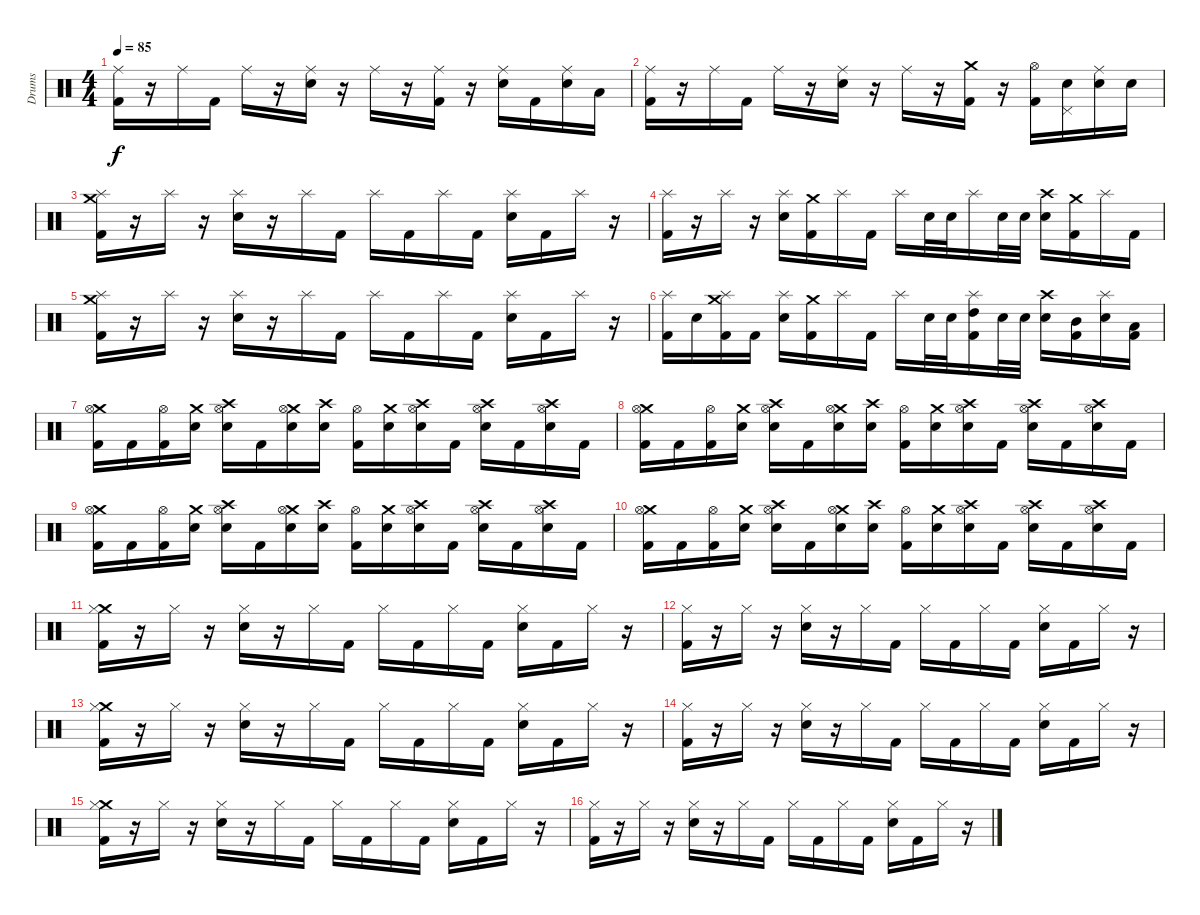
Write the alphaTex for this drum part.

\track ("Drums" "Drums") {instrument percussion}
\staff {score}
\articulation defaults
\ts (4 4)
\tempo 85
\clef neutral
\ks c
("Ride (middle)" "Kick (hit) 2").16{dy f} r.16 "Ride (middle)".16 "Kick (hit) 2".16 "Ride (middle)".16 r.16 ("Ride (middle)" "Electric Snare (hit)").16 r.16 "Ride (middle)".16 r.16 ("Ride (middle)" "Kick (hit) 2").16 r.16 ("Ride (middle)" "Electric Snare (hit)").16 "Kick (hit) 2".16 ("Ride (middle)" "Electric Snare (hit)").16 "Low Tom (hit)".16 |
("Ride (middle)" "Kick (hit) 2").16 r.16 "Ride (middle)".16 "Kick (hit) 2".16 "Ride (middle)".16 r.16 ("Ride (middle)" "Electric Snare (hit)").16 r.16 "Ride (middle)".16 r.16 ("Crash medium (hit)" "Kick (hit) 2").16 r.16 ("Hi-Hat (open)" "Kick (hit) 2").16 ("Pedal Hi-Hat (hit)" "Electric Snare (hit)").16 ("Ride (middle)" "Electric Snare (hit)").16 "Electric Snare (hit)".16 |
("Crash medium (hit)" "Splash (hit)" "Kick (hit) 2").16 r.16 "Splash (hit)".16 r.16 ("Splash (hit)" "Electric Snare (hit)").16 r.16 "Splash (hit)".16 "Kick (hit) 2".16 "Splash (hit)".16 "Kick (hit) 2".16 "Splash (hit)".16 "Kick (hit) 2".16 ("Splash (hit)" "Electric Snare (hit)").16 "Kick (hit) 2".16 "Splash (hit)".16 r.16 |
("Splash (hit)" "Kick (hit) 2").16 r.16 "Splash (hit)".16 r.16 ("Splash (hit)" "Electric Snare (hit)").16 ("Crash medium (hit)" "Kick (hit) 2").16 "Splash (hit)".16 "Kick (hit) 2".16 "Splash (hit)".16 "Electric Snare (hit)".32 "Electric Snare (hit)".32 "Splash (hit)".16 "Electric Snare (hit)".32 "Electric Snare (hit)".32 ("Crash high (hit)" "Electric Snare (hit)").16 ("Crash medium (hit)" "Kick (hit) 2").16 "Splash (hit)".16 "Kick (hit) 2".16 |
("Crash medium (hit)" "Splash (hit)" "Kick (hit) 2").16 r.16 "Splash (hit)".16 r.16 ("Splash (hit)" "Electric Snare (hit)").16 r.16 "Splash (hit)".16 "Kick (hit) 2".16 "Splash (hit)".16 "Kick (hit) 2".16 "Splash (hit)".16 "Kick (hit) 2".16 ("Splash (hit)" "Electric Snare (hit)").16 "Kick (hit) 2".16 "Splash (hit)".16 r.16 |
("Splash (hit)" "Kick (hit) 2").16 "Electric Snare (hit)".16 ("Crash medium (hit)" "Splash (hit)" "Kick (hit) 2").16 "Kick (hit) 2".16 ("Splash (hit)" "Electric Snare (hit)").16 ("Crash medium (hit)" "Kick (hit) 2").16 "Splash (hit)".16 "Kick (hit) 2".16 "Splash (hit)".16 "Electric Snare (hit)".32 "Electric Snare (hit)".32 ("Splash (hit)" "High Tom (hit)" "Kick (hit) 2").16 "Electric Snare (hit)".32 "Electric Snare (hit)".32 ("Crash high (hit)" "Electric Snare (hit)").16 ("Mid Tom (hit)" "Kick (hit) 2").16 ("Splash (hit)" "Electric Snare (hit)").16 ("Low Tom (hit)" "Kick (hit) 2").16 |
("Crash medium (hit)" "Hi-Hat (open)" "Kick (hit) 2").16 "Kick (hit) 2".16 ("Hi-Hat (open)" "Kick (hit) 2").16 ("Crash medium (hit)" "Electric Snare (hit)").16 ("Crash high (hit)" "Hi-Hat (open)" "Electric Snare (hit)").16 "Kick (hit) 2".16 ("Crash medium (hit)" "Hi-Hat (open)" "Electric Snare (hit)").16 ("Crash high (hit)" "Electric Snare (hit)").16 ("Hi-Hat (open)" "Kick (hit) 2").16 ("Crash medium (hit)" "Electric Snare (hit)").16 ("Crash high (hit)" "Hi-Hat (open)" "Electric Snare (hit)").16 "Kick (hit) 2".16 ("Crash high (hit)" "Hi-Hat (open)" "Electric Snare (hit)").16 "Kick (hit) 2".16 ("Crash high (hit)" "Hi-Hat (open)" "Electric Snare (hit)").16 "Kick (hit) 2".16 |
("Crash medium (hit)" "Hi-Hat (open)" "Kick (hit) 2").16 "Kick (hit) 2".16 ("Hi-Hat (open)" "Kick (hit) 2").16 ("Crash medium (hit)" "Electric Snare (hit)").16 ("Crash high (hit)" "Hi-Hat (open)" "Electric Snare (hit)").16 "Kick (hit) 2".16 ("Crash medium (hit)" "Hi-Hat (open)" "Electric Snare (hit)").16 ("Crash high (hit)" "Electric Snare (hit)").16 ("Hi-Hat (open)" "Kick (hit) 2").16 ("Crash medium (hit)" "Electric Snare (hit)").16 ("Crash high (hit)" "Hi-Hat (open)" "Electric Snare (hit)").16 "Kick (hit) 2".16 ("Crash high (hit)" "Hi-Hat (open)" "Electric Snare (hit)").16 "Kick (hit) 2".16 ("Crash high (hit)" "Hi-Hat (open)" "Electric Snare (hit)").16 "Kick (hit) 2".16 |
("Crash medium (hit)" "Hi-Hat (open)" "Kick (hit) 2").16 "Kick (hit) 2".16 ("Hi-Hat (open)" "Kick (hit) 2").16 ("Crash medium (hit)" "Electric Snare (hit)").16 ("Crash high (hit)" "Hi-Hat (open)" "Electric Snare (hit)").16 "Kick (hit) 2".16 ("Crash medium (hit)" "Hi-Hat (open)" "Electric Snare (hit)").16 ("Crash high (hit)" "Electric Snare (hit)").16 ("Hi-Hat (open)" "Kick (hit) 2").16 ("Crash medium (hit)" "Electric Snare (hit)").16 ("Crash high (hit)" "Hi-Hat (open)" "Electric Snare (hit)").16 "Kick (hit) 2".16 ("Crash high (hit)" "Hi-Hat (open)" "Electric Snare (hit)").16 "Kick (hit) 2".16 ("Crash high (hit)" "Hi-Hat (open)" "Electric Snare (hit)").16 "Kick (hit) 2".16 |
("Crash medium (hit)" "Hi-Hat (open)" "Kick (hit) 2").16 "Kick (hit) 2".16 ("Hi-Hat (open)" "Kick (hit) 2").16 ("Crash medium (hit)" "Electric Snare (hit)").16 ("Crash high (hit)" "Hi-Hat (open)" "Electric Snare (hit)").16 "Kick (hit) 2".16 ("Crash medium (hit)" "Hi-Hat (open)" "Electric Snare (hit)").16 ("Crash high (hit)" "Electric Snare (hit)").16 ("Hi-Hat (open)" "Kick (hit) 2").16 ("Crash medium (hit)" "Electric Snare (hit)").16 ("Crash high (hit)" "Hi-Hat (open)" "Electric Snare (hit)").16 "Kick (hit) 2".16 ("Crash high (hit)" "Hi-Hat (open)" "Electric Snare (hit)").16 "Kick (hit) 2".16 ("Crash high (hit)" "Hi-Hat (open)" "Electric Snare (hit)").16 "Kick (hit) 2".16 |
("Crash medium (hit)" "Hi-Hat (closed)" "Kick (hit) 2").16 r.16 "Hi-Hat (closed)".16 r.16 ("Hi-Hat (closed)" "Electric Snare (hit)").16 r.16 "Hi-Hat (closed)".16 "Kick (hit) 2".16 "Hi-Hat (closed)".16 "Kick (hit) 2".16 "Hi-Hat (closed)".16 "Kick (hit) 2".16 ("Hi-Hat (closed)" "Electric Snare (hit)").16 "Kick (hit) 2".16 "Hi-Hat (closed)".16 r.16 |
("Hi-Hat (closed)" "Kick (hit) 2").16 r.16 "Hi-Hat (closed)".16 r.16 ("Hi-Hat (closed)" "Electric Snare (hit)").16 r.16 "Hi-Hat (closed)".16 "Kick (hit) 2".16 "Hi-Hat (closed)".16 "Kick (hit) 2".16 "Hi-Hat (closed)".16 "Kick (hit) 2".16 ("Hi-Hat (closed)" "Electric Snare (hit)").16 "Kick (hit) 2".16 "Hi-Hat (closed)".16 r.16 |
("Crash medium (hit)" "Hi-Hat (closed)" "Kick (hit) 2").16 r.16 "Hi-Hat (closed)".16 r.16 ("Hi-Hat (closed)" "Electric Snare (hit)").16 r.16 "Hi-Hat (closed)".16 "Kick (hit) 2".16 "Hi-Hat (closed)".16 "Kick (hit) 2".16 "Hi-Hat (closed)".16 "Kick (hit) 2".16 ("Hi-Hat (closed)" "Electric Snare (hit)").16 "Kick (hit) 2".16 "Hi-Hat (closed)".16 r.16 |
("Hi-Hat (closed)" "Kick (hit) 2").16 r.16 "Hi-Hat (closed)".16 r.16 ("Hi-Hat (closed)" "Electric Snare (hit)").16 r.16 "Hi-Hat (closed)".16 "Kick (hit) 2".16 "Hi-Hat (closed)".16 "Kick (hit) 2".16 "Hi-Hat (closed)".16 "Kick (hit) 2".16 ("Hi-Hat (closed)" "Electric Snare (hit)").16 "Kick (hit) 2".16 "Hi-Hat (closed)".16 r.16 |
("Crash medium (hit)" "Hi-Hat (closed)" "Kick (hit) 2").16 r.16 "Hi-Hat (closed)".16 r.16 ("Hi-Hat (closed)" "Electric Snare (hit)").16 r.16 "Hi-Hat (closed)".16 "Kick (hit) 2".16 "Hi-Hat (closed)".16 "Kick (hit) 2".16 "Hi-Hat (closed)".16 "Kick (hit) 2".16 ("Hi-Hat (closed)" "Electric Snare (hit)").16 "Kick (hit) 2".16 "Hi-Hat (closed)".16 r.16 |
("Hi-Hat (closed)" "Kick (hit) 2").16 r.16 "Hi-Hat (closed)".16 r.16 ("Hi-Hat (closed)" "Electric Snare (hit)").16 r.16 "Hi-Hat (closed)".16 "Kick (hit) 2".16 "Hi-Hat (closed)".16 "Kick (hit) 2".16 "Hi-Hat (closed)".16 "Kick (hit) 2".16 ("Hi-Hat (closed)" "Electric Snare (hit)").16 "Kick (hit) 2".16 "Hi-Hat (closed)".16 r.16
